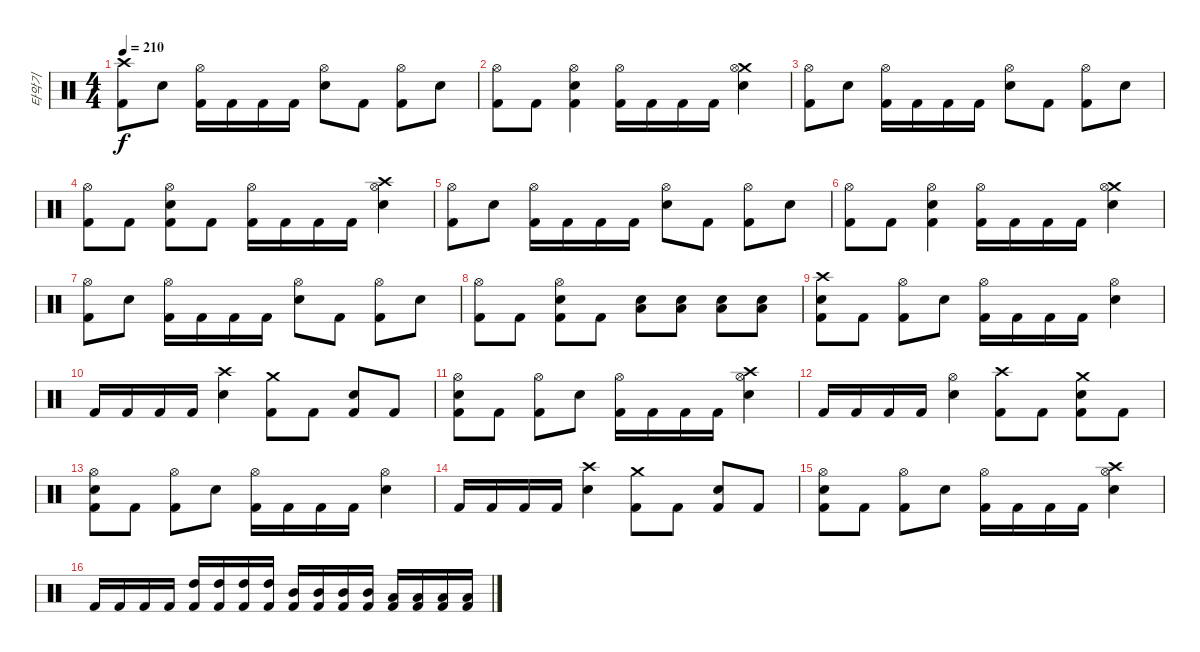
\track ("타악기" "타악기") {instrument percussion}
\staff {score}
\articulation defaults
\ts (4 4)
\tempo 210
\clef neutral
\ks c
("Crash high (hit)" "Kick (hit) 2").8{dy f} "Snare (hit) 2".8 ("Hi-Hat (open)" "Kick (hit) 2").16 "Kick (hit) 2".16 "Kick (hit) 2".16 "Kick (hit) 2".16 ("Hi-Hat (open)" "Snare (hit) 2").8 "Kick (hit) 2".8 ("Hi-Hat (open)" "Kick (hit) 2").8 "Snare (hit) 2".8 |
("Hi-Hat (open)" "Kick (hit) 2").8 "Kick (hit) 2".8 ("Hi-Hat (open)" "Snare (hit) 2" "Kick (hit) 2").4 ("Hi-Hat (open)" "Kick (hit) 2").16 "Kick (hit) 2".16 "Kick (hit) 2".16 "Kick (hit) 2".16 ("Crash medium (hit)" "Hi-Hat (open)" "Snare (hit) 2").4 |
("Hi-Hat (open)" "Kick (hit) 2").8 "Snare (hit) 2".8 ("Hi-Hat (open)" "Kick (hit) 2").16 "Kick (hit) 2".16 "Kick (hit) 2".16 "Kick (hit) 2".16 ("Hi-Hat (open)" "Snare (hit) 2").8 "Kick (hit) 2".8 ("Hi-Hat (open)" "Kick (hit) 2").8 "Snare (hit) 2".8 |
("Hi-Hat (open)" "Kick (hit) 2").8 "Kick (hit) 2".8 ("Hi-Hat (open)" "Snare (hit) 2" "Kick (hit) 2").8 "Kick (hit) 2".8 ("Hi-Hat (open)" "Kick (hit) 2").16 "Kick (hit) 2".16 "Kick (hit) 2".16 "Kick (hit) 2".16 ("Crash high (hit)" "Hi-Hat (open)" "Snare (hit) 2").4 |
("Hi-Hat (open)" "Kick (hit) 2").8 "Snare (hit) 2".8 ("Hi-Hat (open)" "Kick (hit) 2").16 "Kick (hit) 2".16 "Kick (hit) 2".16 "Kick (hit) 2".16 ("Hi-Hat (open)" "Snare (hit) 2").8 "Kick (hit) 2".8 ("Hi-Hat (open)" "Kick (hit) 2").8 "Snare (hit) 2".8 |
("Hi-Hat (open)" "Kick (hit) 2").8 "Kick (hit) 2".8 ("Hi-Hat (open)" "Snare (hit) 2" "Kick (hit) 2").4 ("Hi-Hat (open)" "Kick (hit) 2").16 "Kick (hit) 2".16 "Kick (hit) 2".16 "Kick (hit) 2".16 ("Crash medium (hit)" "Hi-Hat (open)" "Snare (hit) 2").4 |
("Hi-Hat (open)" "Kick (hit) 2").8 "Snare (hit) 2".8 ("Hi-Hat (open)" "Kick (hit) 2").16 "Kick (hit) 2".16 "Kick (hit) 2".16 "Kick (hit) 2".16 ("Hi-Hat (open)" "Snare (hit) 2").8 "Kick (hit) 2".8 ("Hi-Hat (open)" "Kick (hit) 2").8 "Snare (hit) 2".8 |
("Hi-Hat (open)" "Kick (hit) 2").8 "Kick (hit) 2".8 ("Hi-Hat (open)" "Snare (hit) 2" "Kick (hit) 2").8 "Kick (hit) 2".8 ("Low Tom (hit)" "Snare (hit) 2").8 ("Low Tom (hit)" "Snare (hit) 2").8 ("Low Tom (hit)" "Snare (hit) 2").8 ("Low Tom (hit)" "Snare (hit) 2").8 |
("Crash high (hit)" "Snare (hit) 2" "Kick (hit) 2").8 "Kick (hit) 2".8 ("Hi-Hat (open)" "Kick (hit) 2").8 "Snare (hit) 2".8 ("Hi-Hat (open)" "Kick (hit) 2").16 "Kick (hit) 2".16 "Kick (hit) 2".16 "Kick (hit) 2".16 ("Hi-Hat (open)" "Snare (hit) 2").4 |
"Kick (hit) 2".16 "Kick (hit) 2".16 "Kick (hit) 2".16 "Kick (hit) 2".16 ("Crash high (hit)" "Snare (hit) 2").4 ("Crash medium (hit)" "Kick (hit) 2").8 "Kick (hit) 2".8 ("Snare (hit) 2" "Kick (hit) 2").8 "Kick (hit) 2".8 |
("Hi-Hat (open)" "Snare (hit) 2" "Kick (hit) 2").8 "Kick (hit) 2".8 ("Hi-Hat (open)" "Kick (hit) 2").8 "Snare (hit) 2".8 ("Hi-Hat (open)" "Kick (hit) 2").16 "Kick (hit) 2".16 "Kick (hit) 2".16 "Kick (hit) 2".16 ("Crash high (hit)" "Hi-Hat (open)" "Snare (hit) 2").4 |
"Kick (hit) 2".16 "Kick (hit) 2".16 "Kick (hit) 2".16 "Kick (hit) 2".16 ("Hi-Hat (open)" "Snare (hit) 2").4 ("Crash high (hit)" "Kick (hit) 2").8 "Kick (hit) 2".8 ("Crash medium (hit)" "Snare (hit) 2" "Kick (hit) 2").8 "Kick (hit) 2".8 |
("Hi-Hat (open)" "Snare (hit) 2" "Kick (hit) 2").8 "Kick (hit) 2".8 ("Hi-Hat (open)" "Kick (hit) 2").8 "Snare (hit) 2".8 ("Hi-Hat (open)" "Kick (hit) 2").16 "Kick (hit) 2".16 "Kick (hit) 2".16 "Kick (hit) 2".16 ("Hi-Hat (open)" "Snare (hit) 2").4 |
"Kick (hit) 2".16 "Kick (hit) 2".16 "Kick (hit) 2".16 "Kick (hit) 2".16 ("Crash high (hit)" "Snare (hit) 2").4 ("Crash medium (hit)" "Kick (hit) 2").8 "Kick (hit) 2".8 ("Snare (hit) 2" "Kick (hit) 2").8 "Kick (hit) 2".8 |
("Hi-Hat (open)" "Snare (hit) 2" "Kick (hit) 2").8 "Kick (hit) 2".8 ("Hi-Hat (open)" "Kick (hit) 2").8 "Snare (hit) 2".8 ("Hi-Hat (open)" "Kick (hit) 2").16 "Kick (hit) 2".16 "Kick (hit) 2".16 "Kick (hit) 2".16 ("Crash high (hit)" "Hi-Hat (open)" "Snare (hit) 2").4 |
"Kick (hit) 2".16 "Kick (hit) 2".16 "Kick (hit) 2".16 "Kick (hit) 2".16 ("High Tom (hit)" "Kick (hit) 2").16 ("High Tom (hit)" "Kick (hit) 2").16 ("High Tom (hit)" "Kick (hit) 2").16 ("High Tom (hit)" "Kick (hit) 2").16 ("Mid Tom (hit)" "Kick (hit) 2").16 ("Mid Tom (hit)" "Kick (hit) 2").16 ("Mid Tom (hit)" "Kick (hit) 2").16 ("Mid Tom (hit)" "Kick (hit) 2").16 ("Low Tom (hit)" "Kick (hit) 2").16 ("Low Tom (hit)" "Kick (hit) 2").16 ("Low Tom (hit)" "Kick (hit) 2").16 ("Low Tom (hit)" "Kick (hit) 2").16
